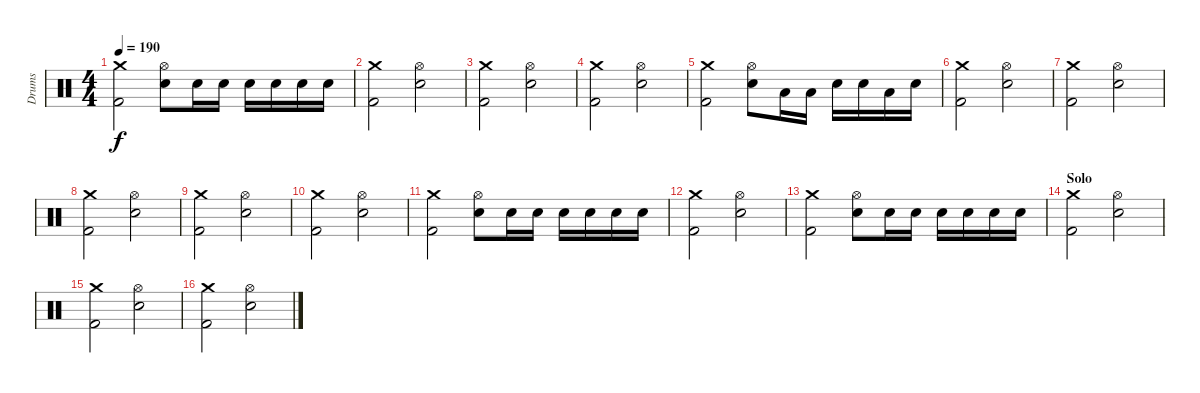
\track ("Drums" "Drums") {instrument percussion}
\staff {score}
\articulation defaults
\ts (4 4)
\tempo 190
\clef neutral
\ks c
("Crash medium (hit)" "Kick (hit) 2").2{dy f} ("Hi-Hat (open)" "Snare (hit) 2").8 "Snare (hit) 2".16 "Snare (hit) 2".16 "Snare (hit) 2".16 "Snare (hit) 2".16 "Snare (hit) 2".16 "Snare (hit) 2".16 |
("Crash medium (hit)" "Kick (hit) 2").2 ("Hi-Hat (open)" "Snare (hit) 2").2 |
("Crash medium (hit)" "Kick (hit) 2").2 ("Hi-Hat (open)" "Snare (hit) 2").2 |
("Crash medium (hit)" "Kick (hit) 2").2 ("Hi-Hat (open)" "Snare (hit) 2").2 |
("Crash medium (hit)" "Kick (hit) 2").2 ("Hi-Hat (open)" "Snare (hit) 2").8 "Low Tom (hit)".16 "Low Tom (hit)".16 "Snare (hit) 2".16 "Snare (hit) 2".16 "Low Tom (hit)".16 "Snare (hit) 2".16 |
("Crash medium (hit)" "Kick (hit) 2").2 ("Hi-Hat (open)" "Snare (hit) 2").2 |
("Crash medium (hit)" "Kick (hit) 2").2 ("Hi-Hat (open)" "Snare (hit) 2").2 |
("Crash medium (hit)" "Kick (hit) 2").2 ("Hi-Hat (open)" "Snare (hit) 2").2 |
("Crash medium (hit)" "Kick (hit) 2").2 ("Hi-Hat (open)" "Snare (hit) 2").2 |
("Crash medium (hit)" "Kick (hit) 2").2 ("Hi-Hat (open)" "Snare (hit) 2").2 |
("Crash medium (hit)" "Kick (hit) 2").2 ("Hi-Hat (open)" "Snare (hit) 2").8 "Snare (hit) 2".16 "Snare (hit) 2".16 "Snare (hit) 2".16 "Snare (hit) 2".16 "Snare (hit) 2".16 "Snare (hit) 2".16 |
("Crash medium (hit)" "Kick (hit) 2").2 ("Hi-Hat (open)" "Snare (hit) 2").2 |
("Crash medium (hit)" "Kick (hit) 2").2 ("Hi-Hat (open)" "Snare (hit) 2").8 "Snare (hit) 2".16 "Snare (hit) 2".16 "Snare (hit) 2".16 "Snare (hit) 2".16 "Snare (hit) 2".16 "Snare (hit) 2".16 |
\section ("" "Solo")
("Crash medium (hit)" "Kick (hit) 2").2 ("Hi-Hat (open)" "Snare (hit) 2").2 |
("Crash medium (hit)" "Kick (hit) 2").2 ("Hi-Hat (open)" "Snare (hit) 2").2 |
("Crash medium (hit)" "Kick (hit) 2").2 ("Hi-Hat (open)" "Snare (hit) 2").2
